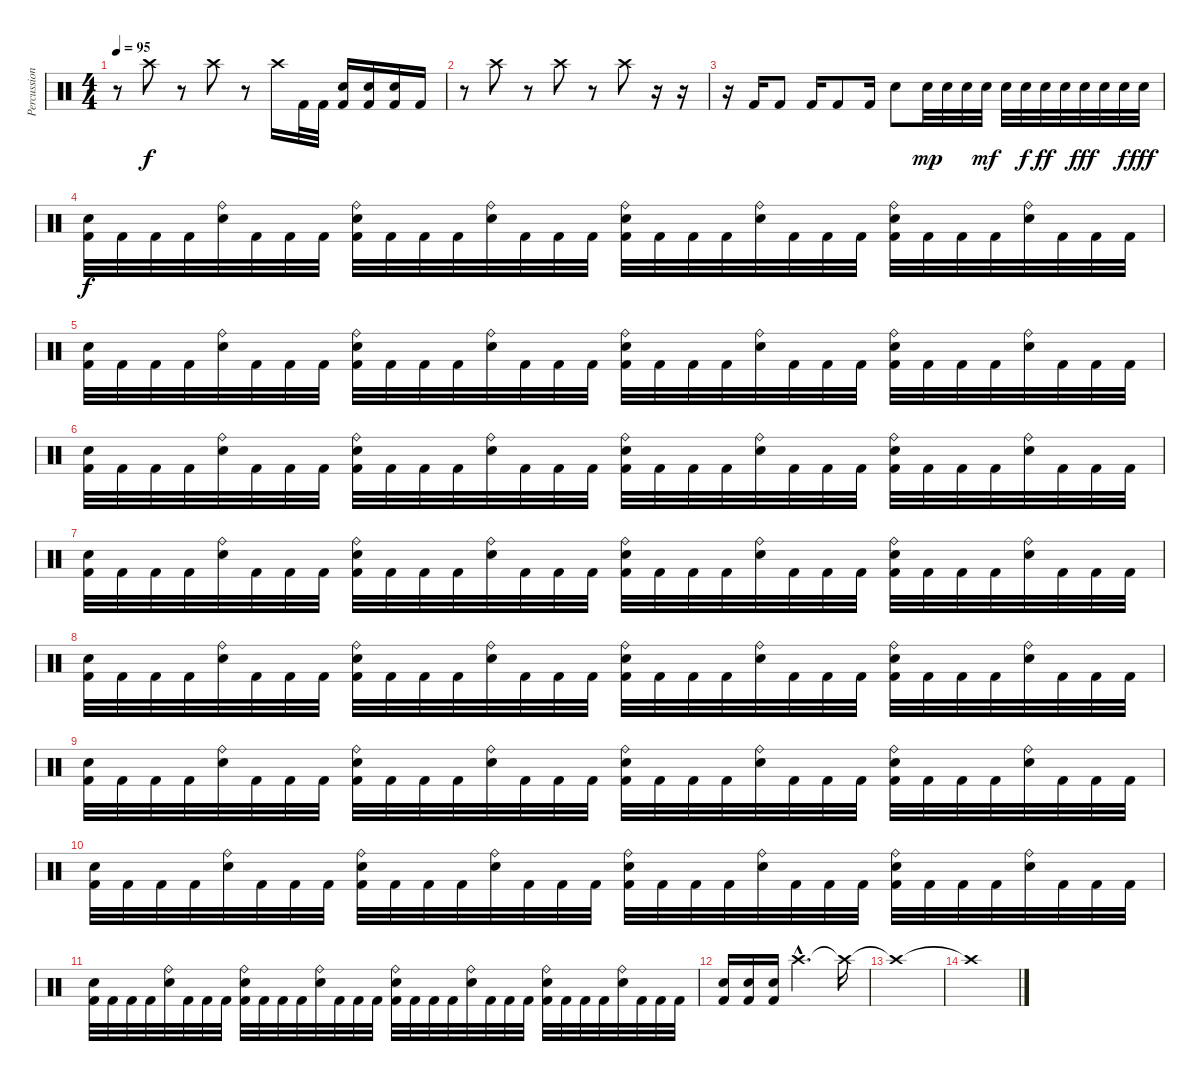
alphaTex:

\track ("Percussion" "Percussion") {instrument percussion}
\staff {score}
\articulation defaults
\ts (4 4)
\tempo 95
\clef neutral
\ks c
r.8{dy f} "Crash high (hit)".8 r.8 "Crash high (hit)".8 r.8 "Crash high (hit)".16 "Kick (hit) 2".32 "Kick (hit) 2".32 ("Electric Snare (hit)" "Kick (hit) 2").16 ("Electric Snare (hit)" "Kick (hit) 2").16 ("Electric Snare (hit)" "Kick (hit) 2").16 "Kick (hit) 2".16 |
r.8 "Crash high (hit)".8 r.8 "Crash high (hit)".8 r.8 "Crash high (hit)".8 r.16 r.16 |
r.16 "Kick (hit) 2".16 "Kick (hit) 2".8 "Kick (hit) 2".16 "Kick (hit) 2".8 "Kick (hit) 2".16 "Electric Snare (hit)".8 "Electric Snare (hit)".32{dy mp} "Electric Snare (hit)".32 "Electric Snare (hit)".32 "Electric Snare (hit)".32{dy mf} "Electric Snare (hit)".32 "Electric Snare (hit)".32{dy f} "Electric Snare (hit)".32{dy ff} "Electric Snare (hit)".32 "Electric Snare (hit)".32{dy fff} "Electric Snare (hit)".32 "Electric Snare (hit)".32{dy f} "Electric Snare (hit)".32{dy fff} |
("Electric Snare (hit)" "Kick (hit) 2").32{dy f} "Kick (hit) 2".32 "Kick (hit) 2".32 "Kick (hit) 2".32 ("Ride (bell)" "Electric Snare (hit)").32 "Kick (hit) 2".32 "Kick (hit) 2".32 "Kick (hit) 2".32 ("Ride (bell)" "Electric Snare (hit)" "Kick (hit) 2").32 "Kick (hit) 2".32 "Kick (hit) 2".32 "Kick (hit) 2".32 ("Ride (bell)" "Electric Snare (hit)").32 "Kick (hit) 2".32 "Kick (hit) 2".32 "Kick (hit) 2".32 ("Ride (bell)" "Electric Snare (hit)" "Kick (hit) 2").32 "Kick (hit) 2".32 "Kick (hit) 2".32 "Kick (hit) 2".32 ("Ride (bell)" "Electric Snare (hit)").32 "Kick (hit) 2".32 "Kick (hit) 2".32 "Kick (hit) 2".32 ("Ride (bell)" "Electric Snare (hit)" "Kick (hit) 2").32 "Kick (hit) 2".32 "Kick (hit) 2".32 "Kick (hit) 2".32 ("Ride (bell)" "Electric Snare (hit)").32 "Kick (hit) 2".32 "Kick (hit) 2".32 "Kick (hit) 2".32 |
("Electric Snare (hit)" "Kick (hit) 2").32 "Kick (hit) 2".32 "Kick (hit) 2".32 "Kick (hit) 2".32 ("Ride (bell)" "Electric Snare (hit)").32 "Kick (hit) 2".32 "Kick (hit) 2".32 "Kick (hit) 2".32 ("Ride (bell)" "Electric Snare (hit)" "Kick (hit) 2").32 "Kick (hit) 2".32 "Kick (hit) 2".32 "Kick (hit) 2".32 ("Ride (bell)" "Electric Snare (hit)").32 "Kick (hit) 2".32 "Kick (hit) 2".32 "Kick (hit) 2".32 ("Ride (bell)" "Electric Snare (hit)" "Kick (hit) 2").32 "Kick (hit) 2".32 "Kick (hit) 2".32 "Kick (hit) 2".32 ("Ride (bell)" "Electric Snare (hit)").32 "Kick (hit) 2".32 "Kick (hit) 2".32 "Kick (hit) 2".32 ("Ride (bell)" "Electric Snare (hit)" "Kick (hit) 2").32 "Kick (hit) 2".32 "Kick (hit) 2".32 "Kick (hit) 2".32 ("Ride (bell)" "Electric Snare (hit)").32 "Kick (hit) 2".32 "Kick (hit) 2".32 "Kick (hit) 2".32 |
("Electric Snare (hit)" "Kick (hit) 2").32 "Kick (hit) 2".32 "Kick (hit) 2".32 "Kick (hit) 2".32 ("Ride (bell)" "Electric Snare (hit)").32 "Kick (hit) 2".32 "Kick (hit) 2".32 "Kick (hit) 2".32 ("Ride (bell)" "Electric Snare (hit)" "Kick (hit) 2").32 "Kick (hit) 2".32 "Kick (hit) 2".32 "Kick (hit) 2".32 ("Ride (bell)" "Electric Snare (hit)").32 "Kick (hit) 2".32 "Kick (hit) 2".32 "Kick (hit) 2".32 ("Ride (bell)" "Electric Snare (hit)" "Kick (hit) 2").32 "Kick (hit) 2".32 "Kick (hit) 2".32 "Kick (hit) 2".32 ("Ride (bell)" "Electric Snare (hit)").32 "Kick (hit) 2".32 "Kick (hit) 2".32 "Kick (hit) 2".32 ("Ride (bell)" "Electric Snare (hit)" "Kick (hit) 2").32 "Kick (hit) 2".32 "Kick (hit) 2".32 "Kick (hit) 2".32 ("Ride (bell)" "Electric Snare (hit)").32 "Kick (hit) 2".32 "Kick (hit) 2".32 "Kick (hit) 2".32 |
("Electric Snare (hit)" "Kick (hit) 2").32 "Kick (hit) 2".32 "Kick (hit) 2".32 "Kick (hit) 2".32 ("Ride (bell)" "Electric Snare (hit)").32 "Kick (hit) 2".32 "Kick (hit) 2".32 "Kick (hit) 2".32 ("Ride (bell)" "Electric Snare (hit)" "Kick (hit) 2").32 "Kick (hit) 2".32 "Kick (hit) 2".32 "Kick (hit) 2".32 ("Ride (bell)" "Electric Snare (hit)").32 "Kick (hit) 2".32 "Kick (hit) 2".32 "Kick (hit) 2".32 ("Ride (bell)" "Electric Snare (hit)" "Kick (hit) 2").32 "Kick (hit) 2".32 "Kick (hit) 2".32 "Kick (hit) 2".32 ("Ride (bell)" "Electric Snare (hit)").32 "Kick (hit) 2".32 "Kick (hit) 2".32 "Kick (hit) 2".32 ("Ride (bell)" "Electric Snare (hit)" "Kick (hit) 2").32 "Kick (hit) 2".32 "Kick (hit) 2".32 "Kick (hit) 2".32 ("Ride (bell)" "Electric Snare (hit)").32 "Kick (hit) 2".32 "Kick (hit) 2".32 "Kick (hit) 2".32 |
("Electric Snare (hit)" "Kick (hit) 2").32 "Kick (hit) 2".32 "Kick (hit) 2".32 "Kick (hit) 2".32 ("Ride (bell)" "Electric Snare (hit)").32 "Kick (hit) 2".32 "Kick (hit) 2".32 "Kick (hit) 2".32 ("Ride (bell)" "Electric Snare (hit)" "Kick (hit) 2").32 "Kick (hit) 2".32 "Kick (hit) 2".32 "Kick (hit) 2".32 ("Ride (bell)" "Electric Snare (hit)").32 "Kick (hit) 2".32 "Kick (hit) 2".32 "Kick (hit) 2".32 ("Ride (bell)" "Electric Snare (hit)" "Kick (hit) 2").32 "Kick (hit) 2".32 "Kick (hit) 2".32 "Kick (hit) 2".32 ("Ride (bell)" "Electric Snare (hit)").32 "Kick (hit) 2".32 "Kick (hit) 2".32 "Kick (hit) 2".32 ("Ride (bell)" "Electric Snare (hit)" "Kick (hit) 2").32 "Kick (hit) 2".32 "Kick (hit) 2".32 "Kick (hit) 2".32 ("Ride (bell)" "Electric Snare (hit)").32 "Kick (hit) 2".32 "Kick (hit) 2".32 "Kick (hit) 2".32 |
("Electric Snare (hit)" "Kick (hit) 2").32 "Kick (hit) 2".32 "Kick (hit) 2".32 "Kick (hit) 2".32 ("Ride (bell)" "Electric Snare (hit)").32 "Kick (hit) 2".32 "Kick (hit) 2".32 "Kick (hit) 2".32 ("Ride (bell)" "Electric Snare (hit)" "Kick (hit) 2").32 "Kick (hit) 2".32 "Kick (hit) 2".32 "Kick (hit) 2".32 ("Ride (bell)" "Electric Snare (hit)").32 "Kick (hit) 2".32 "Kick (hit) 2".32 "Kick (hit) 2".32 ("Ride (bell)" "Electric Snare (hit)" "Kick (hit) 2").32 "Kick (hit) 2".32 "Kick (hit) 2".32 "Kick (hit) 2".32 ("Ride (bell)" "Electric Snare (hit)").32 "Kick (hit) 2".32 "Kick (hit) 2".32 "Kick (hit) 2".32 ("Ride (bell)" "Electric Snare (hit)" "Kick (hit) 2").32 "Kick (hit) 2".32 "Kick (hit) 2".32 "Kick (hit) 2".32 ("Ride (bell)" "Electric Snare (hit)").32 "Kick (hit) 2".32 "Kick (hit) 2".32 "Kick (hit) 2".32 |
("Electric Snare (hit)" "Kick (hit) 2").32 "Kick (hit) 2".32 "Kick (hit) 2".32 "Kick (hit) 2".32 ("Ride (bell)" "Electric Snare (hit)").32 "Kick (hit) 2".32 "Kick (hit) 2".32 "Kick (hit) 2".32 ("Ride (bell)" "Electric Snare (hit)" "Kick (hit) 2").32 "Kick (hit) 2".32 "Kick (hit) 2".32 "Kick (hit) 2".32 ("Ride (bell)" "Electric Snare (hit)").32 "Kick (hit) 2".32 "Kick (hit) 2".32 "Kick (hit) 2".32 ("Ride (bell)" "Electric Snare (hit)" "Kick (hit) 2").32 "Kick (hit) 2".32 "Kick (hit) 2".32 "Kick (hit) 2".32 ("Ride (bell)" "Electric Snare (hit)").32 "Kick (hit) 2".32 "Kick (hit) 2".32 "Kick (hit) 2".32 ("Ride (bell)" "Electric Snare (hit)" "Kick (hit) 2").32 "Kick (hit) 2".32 "Kick (hit) 2".32 "Kick (hit) 2".32 ("Ride (bell)" "Electric Snare (hit)").32 "Kick (hit) 2".32 "Kick (hit) 2".32 "Kick (hit) 2".32 |
("Electric Snare (hit)" "Kick (hit) 2").32 "Kick (hit) 2".32 "Kick (hit) 2".32 "Kick (hit) 2".32 ("Ride (bell)" "Electric Snare (hit)").32 "Kick (hit) 2".32 "Kick (hit) 2".32 "Kick (hit) 2".32 ("Ride (bell)" "Electric Snare (hit)" "Kick (hit) 2").32 "Kick (hit) 2".32 "Kick (hit) 2".32 "Kick (hit) 2".32 ("Ride (bell)" "Electric Snare (hit)").32 "Kick (hit) 2".32 "Kick (hit) 2".32 "Kick (hit) 2".32 ("Ride (bell)" "Electric Snare (hit)" "Kick (hit) 2").32 "Kick (hit) 2".32 "Kick (hit) 2".32 "Kick (hit) 2".32 ("Ride (bell)" "Electric Snare (hit)").32 "Kick (hit) 2".32 "Kick (hit) 2".32 "Kick (hit) 2".32 ("Ride (bell)" "Electric Snare (hit)" "Kick (hit) 2").32 "Kick (hit) 2".32 "Kick (hit) 2".32 "Kick (hit) 2".32 ("Ride (bell)" "Electric Snare (hit)").32 "Kick (hit) 2".32 "Kick (hit) 2".32 "Kick (hit) 2".32 |
("Electric Snare (hit)" "Kick (hit) 2").16 ("Electric Snare (hit)" "Kick (hit) 2").16 ("Electric Snare (hit)" "Kick (hit) 2").16 "Crash high (hit)"{hac}.2{d} "Crash high (hit)"{t}.16 |
"Crash high (hit)"{t}.1 |
"Crash high (hit)"{t}.1
